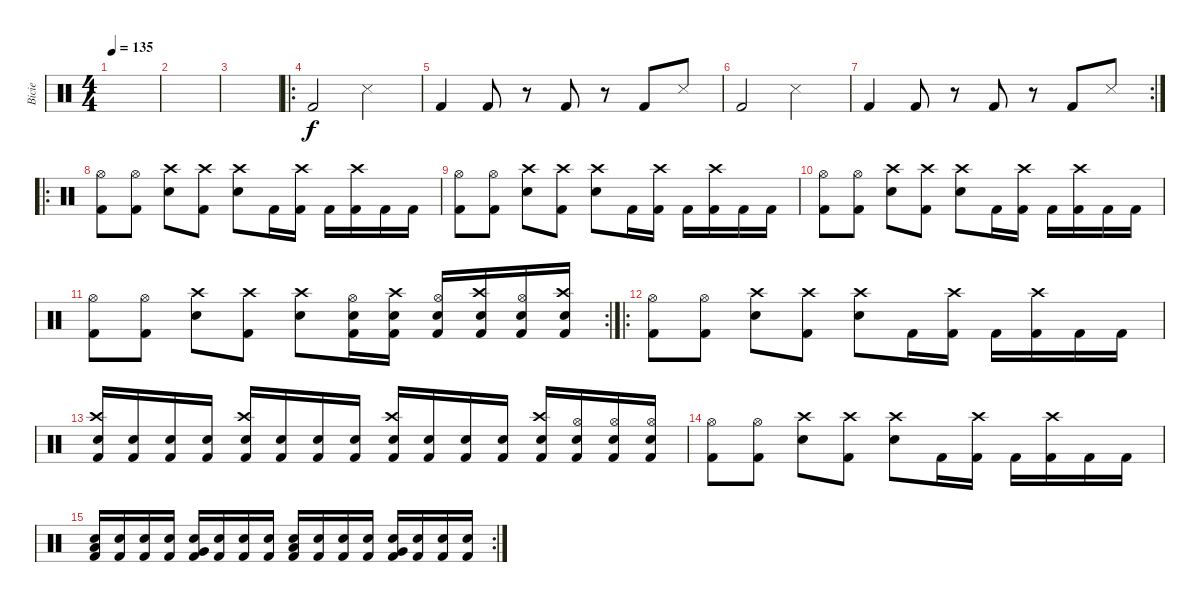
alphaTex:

\track ("Bicie" "Bicie") {instrument percussion}
\staff {score}
\articulation defaults
\ts (4 4)
\tempo 135
\clef neutral
\ks c
|
|
|
\ro "Kick (hit) 2".2 "Snare (side stick) 3".2
|
"Kick (hit) 2".4 "Kick (hit) 2".8 r.8 "Kick (hit) 2".8 r.8 "Kick (hit) 2".8 "Snare (side stick) 3".8 |
"Kick (hit) 2".2 "Snare (side stick) 3".2 |
\rc 2 "Kick (hit) 2".4 "Kick (hit) 2".8
r.8 "Kick (hit) 2".8 r.8 "Kick (hit) 2".8 "Snare (side stick) 3".8 |
\ro
("Hi-Hat (open)" "Kick (hit) 2").8 ("Hi-Hat (open)" "Kick (hit) 2").8 ("Crash high (hit)" "Electric Snare (hit)").8 ("Crash high (hit)" "Kick (hit) 2").8 ("Crash high (hit)" "Electric Snare (hit)").8 "Kick (hit) 2".16 ("Crash high (hit)" "Kick (hit) 2").16 "Kick (hit) 2".16 ("Crash high (hit)" "Kick (hit) 2").16 "Kick (hit) 2".16 "Kick (hit) 2".16 |
("Hi-Hat (open)" "Kick (hit) 2").8 ("Hi-Hat (open)" "Kick (hit) 2").8 ("Crash high (hit)" "Electric Snare (hit)").8 ("Crash high (hit)" "Kick (hit) 2").8 ("Crash high (hit)" "Electric Snare (hit)").8 "Kick (hit) 2".16 ("Crash high (hit)" "Kick (hit) 2").16 "Kick (hit) 2".16 ("Crash high (hit)" "Kick (hit) 2").16 "Kick (hit) 2".16 "Kick (hit) 2".16 |
("Hi-Hat (open)" "Kick (hit) 2").8 ("Hi-Hat (open)" "Kick (hit) 2").8 ("Crash high (hit)" "Electric Snare (hit)").8 ("Crash high (hit)" "Kick (hit) 2").8 ("Crash high (hit)" "Electric Snare (hit)").8 "Kick (hit) 2".16 ("Crash high (hit)" "Kick (hit) 2").16 "Kick (hit) 2".16 ("Crash high (hit)" "Kick (hit) 2").16 "Kick (hit) 2".16 "Kick (hit) 2".16 |
\rc 2
("Hi-Hat (open)" "Kick (hit) 2").8 ("Hi-Hat (open)" "Kick (hit) 2").8 ("Crash high (hit)" "Electric Snare (hit)").8 ("Crash high (hit)" "Kick (hit) 2").8 ("Crash high (hit)" "Electric Snare (hit)").8 ("Electric Snare (hit)" "Hi-Hat (open)" "Kick (hit) 2").16 ("Electric Snare (hit)" "Crash high (hit)" "Kick (hit) 2").16 ("Electric Snare (hit)" "Hi-Hat (open)" "Kick (hit) 2").16 ("Electric Snare (hit)" "Crash high (hit)" "Kick (hit) 2").16 ("Electric Snare (hit)" "Hi-Hat (open)" "Kick (hit) 2").16 ("Electric Snare (hit)" "Crash high (hit)" "Kick (hit) 2").16 |
\ro
("Hi-Hat (open)" "Kick (hit) 2").8 ("Hi-Hat (open)" "Kick (hit) 2").8 ("Crash high (hit)" "Electric Snare (hit)").8 ("Crash high (hit)" "Kick (hit) 2").8 ("Crash high (hit)" "Electric Snare (hit)").8 "Kick (hit) 2".16 ("Crash high (hit)" "Kick (hit) 2").16 "Kick (hit) 2".16 ("Crash high (hit)" "Kick (hit) 2").16 "Kick (hit) 2".16 "Kick (hit) 2".16 |
("Crash high (hit)" "Snare (hit) 2" "Kick (hit) 2").16 ("Snare (hit) 2" "Kick (hit) 2").16 ("Snare (hit) 2" "Kick (hit) 2").16 ("Snare (hit) 2" "Kick (hit) 2").16 ("Crash high (hit)" "Snare (hit) 2" "Kick (hit) 2").16 ("Snare (hit) 2" "Kick (hit) 2").16 ("Snare (hit) 2" "Kick (hit) 2").16 ("Snare (hit) 2" "Kick (hit) 2").16 ("Crash high (hit)" "Snare (hit) 2" "Kick (hit) 2").16 ("Snare (hit) 2" "Kick (hit) 2").16 ("Snare (hit) 2" "Kick (hit) 2").16 ("Snare (hit) 2" "Kick (hit) 2").16 ("Crash high (hit)" "Snare (hit) 2" "Kick (hit) 2").16 ("Hi-Hat (open)" "Snare (hit) 2" "Kick (hit) 2").16 ("Hi-Hat (open)" "Snare (hit) 2" "Kick (hit) 2").16 ("Hi-Hat (open)" "Snare (hit) 2" "Kick (hit) 2").16 |
("Hi-Hat (open)" "Kick (hit) 2").8 ("Hi-Hat (open)" "Kick (hit) 2").8 ("Crash high (hit)" "Electric Snare (hit)").8 ("Crash high (hit)" "Kick (hit) 2").8 ("Crash high (hit)" "Electric Snare (hit)").8 "Kick (hit) 2".16 ("Crash high (hit)" "Kick (hit) 2").16 "Kick (hit) 2".16 ("Crash high (hit)" "Kick (hit) 2").16 "Kick (hit) 2".16 "Kick (hit) 2".16 |
\rc 2
("Low Tom (hit)" "Snare (hit) 2" "Kick (hit) 2").16 ("Snare (hit) 2" "Kick (hit) 2").16 ("Snare (hit) 2" "Kick (hit) 2").16 ("Snare (hit) 2" "Kick (hit) 2").16 ("Very Low Tom (hit)" "Snare (hit) 2" "Kick (hit) 2").16 ("Snare (hit) 2" "Kick (hit) 2").16 ("Snare (hit) 2" "Kick (hit) 2").16 ("Snare (hit) 2" "Kick (hit) 2").16 ("Low Floor Tom (hit)" "Snare (hit) 2" "Kick (hit) 2").16 ("Snare (hit) 2" "Kick (hit) 2").16 ("Snare (hit) 2" "Kick (hit) 2").16 ("Snare (hit) 2" "Kick (hit) 2").16 ("Very Low Tom (hit)" "Snare (hit) 2" "Kick (hit) 2").16 ("Snare (hit) 2" "Kick (hit) 2").16 ("Snare (hit) 2" "Kick (hit) 2").16 ("Snare (hit) 2" "Kick (hit) 2").16
